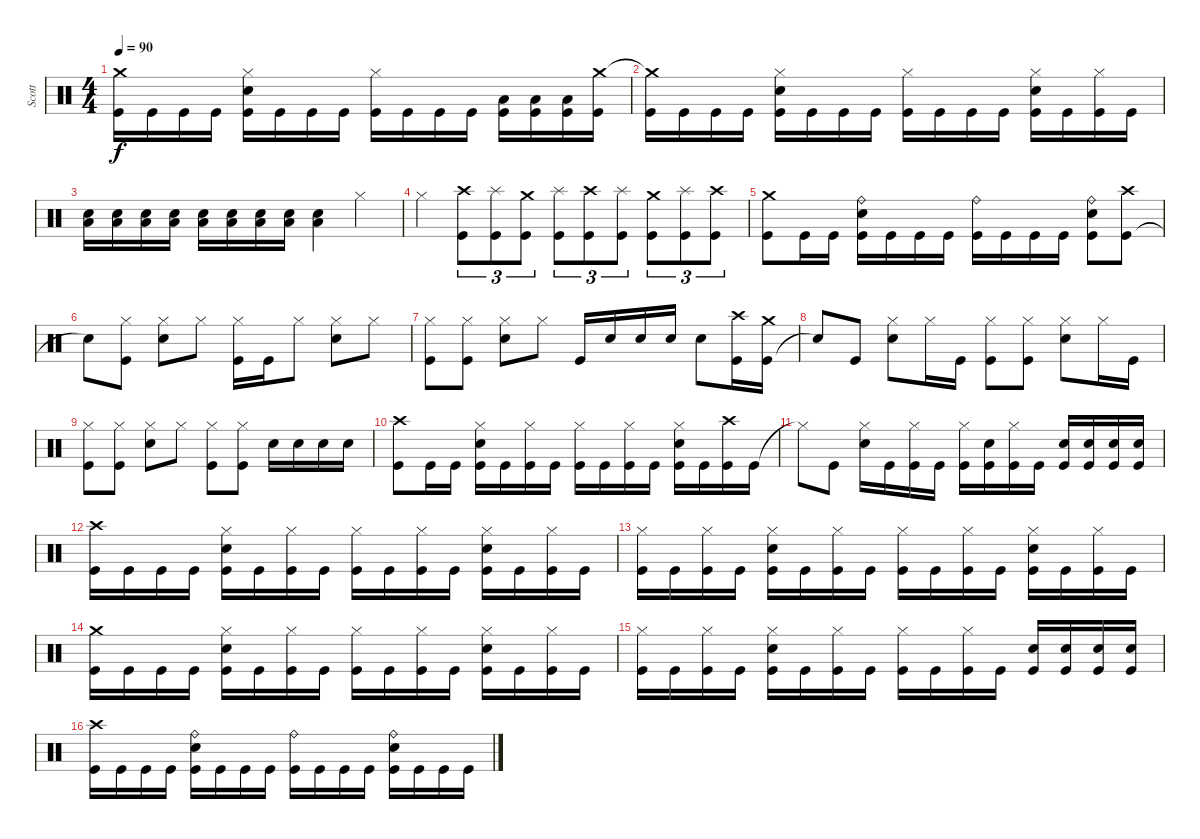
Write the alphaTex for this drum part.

\track ("Scott" "Scott") {instrument percussion}
\staff {score}
\articulation defaults
\ts (4 4)
\tempo 90
\clef neutral
\ks c
("Kick (hit)" "Crash medium (hit)"{t}).16{dy f} "Kick (hit)".16 "Kick (hit)".16 "Kick (hit)".16 ("Kick (hit)" "Snare (hit) 2" "Hi-Hat (closed)").16 "Kick (hit)".16 "Kick (hit)".16 "Kick (hit)".16 ("Kick (hit)" "Hi-Hat (closed)").16 "Kick (hit)".16 "Kick (hit)".16 "Kick (hit)".16 ("Kick (hit)" "Low Floor Tom (hit)").16 ("Kick (hit)" "Low Floor Tom (hit)").16 ("Kick (hit)" "Low Floor Tom (hit)").16 ("Kick (hit)" "Crash medium (hit)").16 |
("Kick (hit)" "Crash medium (hit)"{t}).16 "Kick (hit)".16 "Kick (hit)".16 "Kick (hit)".16 ("Kick (hit)" "Snare (hit) 2" "Hi-Hat (closed)").16 "Kick (hit)".16 "Kick (hit)".16 "Kick (hit)".16 ("Kick (hit)" "Hi-Hat (closed)").16 "Kick (hit)".16 "Kick (hit)".16 "Kick (hit)".16 ("Kick (hit)" "Snare (hit) 2" "Hi-Hat (closed)").16 "Kick (hit)".16 ("Kick (hit)" "Hi-Hat (closed)").16 "Kick (hit)".16 |
("Snare (hit) 2" "Low Floor Tom (hit)").16 ("Snare (hit) 2" "Low Floor Tom (hit)").16 ("Snare (hit) 2" "Low Floor Tom (hit)").16 ("Snare (hit) 2" "Low Floor Tom (hit)").16 ("Snare (hit) 2" "Low Floor Tom (hit)").16 ("Snare (hit) 2" "Low Floor Tom (hit)").16 ("Snare (hit) 2" "Low Floor Tom (hit)").16 ("Snare (hit) 2" "Low Floor Tom (hit)").16 ("Snare (hit) 2" "Low Floor Tom (hit)").4 "Hi-Hat (closed)".4 |
"Hi-Hat (closed)".4 ("Kick (hit)" "Crash high (hit)").8{tu (3 2)} ("Kick (hit)" "Splash (hit)").8{tu (3 2)} ("Kick (hit)" "Crash medium (hit)").8{tu (3 2)} ("Kick (hit)" "Splash (hit)").8{tu (3 2)} ("Kick (hit)" "Crash high (hit)").8{tu (3 2)} ("Kick (hit)" "Splash (hit)").8{tu (3 2)} ("Kick (hit)" "Crash medium (hit)").8{tu (3 2)} ("Kick (hit)" "Splash (hit)").8{tu (3 2)} ("Kick (hit)" "Crash high (hit)").8{tu (3 2)} |
("Kick (hit)" "Crash medium (hit)").8 "Kick (hit)".16 "Kick (hit)".16 ("Kick (hit)" "Snare (hit) 2" "Ride (bell)").16 "Kick (hit)".16 "Kick (hit)".16 "Kick (hit)".16 ("Kick (hit)" "Ride (bell)").16 "Kick (hit)".16 "Kick (hit)".16 "Kick (hit)".16 ("Kick (hit)" "Snare (hit) 2" "Ride (bell)").8 ("Kick (hit)" "Crash high (hit)").8 |
"Snare (hit)"{t}.8 ("Kick (hit)" "Hi-Hat (closed)").8 ("Snare (hit) 2" "Hi-Hat (closed)").8 "Hi-Hat (closed)".8 ("Kick (hit)" "Hi-Hat (closed)").16 "Kick (hit)".16 "Hi-Hat (closed)".8 ("Snare (hit) 2" "Hi-Hat (closed)").8 "Hi-Hat (closed)".8 |
("Kick (hit)" "Hi-Hat (closed)").8 ("Kick (hit)" "Hi-Hat (closed)").8 ("Snare (hit) 2" "Hi-Hat (closed)").8 "Hi-Hat (closed)".8 "Kick (hit)".16 "Snare (hit) 2".16 "Snare (hit) 2".16 "Snare (hit) 2".16 "Snare (hit) 2".8 ("Kick (hit)" "Crash high (hit)").16 ("Kick (hit)" "Crash medium (hit)").16 |
"Snare (hit)"{t}.8 "Kick (hit)".8 ("Snare (hit) 2" "Hi-Hat (closed)").8 "Hi-Hat (closed)".16 "Kick (hit)".16 ("Kick (hit)" "Hi-Hat (closed)").8 ("Kick (hit)" "Hi-Hat (closed)").8 ("Snare (hit) 2" "Hi-Hat (closed)").8 "Hi-Hat (closed)".16 "Kick (hit)".16 |
("Kick (hit)" "Hi-Hat (closed)").8 ("Kick (hit)" "Hi-Hat (closed)").8 ("Snare (hit) 2" "Hi-Hat (closed)").8 "Hi-Hat (closed)".8 ("Kick (hit)" "Hi-Hat (closed)").8 ("Kick (hit)" "Hi-Hat (closed)").8 "Snare (hit) 2".16 "Snare (hit) 2".16 "Snare (hit) 2".16 "Snare (hit) 2".16 |
("Kick (hit)" "Crash high (hit)").8 "Kick (hit)".16 "Kick (hit)".16 ("Kick (hit)" "Snare (hit) 2" "Hi-Hat (closed)").16 "Kick (hit)".16 ("Kick (hit)" "Hi-Hat (closed)").16 "Kick (hit)".16 ("Kick (hit)" "Hi-Hat (closed)").16 "Kick (hit)".16 ("Kick (hit)" "Hi-Hat (closed)").16 "Kick (hit)".16 ("Kick (hit)" "Snare (hit) 2" "Hi-Hat (closed)").16 "Kick (hit)".16 ("Kick (hit)" "Crash high (hit)").16 "Kick (hit)".16 |
"Hi-Hat (closed)"{t}.8 "Kick (hit)".8 ("Snare (hit) 2" "Hi-Hat (closed)").16 "Kick (hit)".16 ("Kick (hit)" "Hi-Hat (closed)").16 "Kick (hit)".16 ("Kick (hit)" "Hi-Hat (closed)").16 ("Kick (hit)" "Snare (hit) 2").16 ("Kick (hit)" "Hi-Hat (closed)").16 "Kick (hit)".16 ("Kick (hit)" "Snare (hit) 2").16 ("Kick (hit)" "Snare (hit) 2").16 ("Kick (hit)" "Snare (hit) 2").16 ("Kick (hit)" "Snare (hit) 2").16 |
("Kick (hit)" "Crash high (hit)").16 "Kick (hit)".16 "Kick (hit)".16 "Kick (hit)".16 ("Kick (hit)" "Snare (hit) 2" "Hi-Hat (closed)").16 "Kick (hit)".16 ("Kick (hit)" "Hi-Hat (closed)").16 "Kick (hit)".16 ("Kick (hit)" "Hi-Hat (closed)").16 "Kick (hit)".16 ("Kick (hit)" "Hi-Hat (closed)").16 "Kick (hit)".16 ("Kick (hit)" "Snare (hit) 2" "Hi-Hat (closed)").16 "Kick (hit)".16 ("Kick (hit)" "Hi-Hat (closed)").16 "Kick (hit)".16 |
("Kick (hit)" "Hi-Hat (closed)").16 "Kick (hit)".16 ("Kick (hit)" "Hi-Hat (closed)").16 "Kick (hit)".16 ("Kick (hit)" "Snare (hit) 2" "Hi-Hat (closed)").16 "Kick (hit)".16 ("Kick (hit)" "Hi-Hat (closed)").16 "Kick (hit)".16 ("Kick (hit)" "Hi-Hat (closed)").16 "Kick (hit)".16 ("Kick (hit)" "Hi-Hat (closed)").16 "Kick (hit)".16 ("Kick (hit)" "Snare (hit) 2" "Hi-Hat (closed)").16 "Kick (hit)".16 ("Kick (hit)" "Hi-Hat (closed)").16 "Kick (hit)".16 |
("Kick (hit)" "Crash medium (hit)").16 "Kick (hit)".16 "Kick (hit)".16 "Kick (hit)".16 ("Kick (hit)" "Snare (hit) 2" "Hi-Hat (closed)").16 "Kick (hit)".16 ("Kick (hit)" "Hi-Hat (closed)").16 "Kick (hit)".16 ("Kick (hit)" "Hi-Hat (closed)").16 "Kick (hit)".16 ("Kick (hit)" "Hi-Hat (closed)").16 "Kick (hit)".16 ("Kick (hit)" "Snare (hit) 2" "Hi-Hat (closed)").16 "Kick (hit)".16 ("Kick (hit)" "Hi-Hat (closed)").16 "Kick (hit)".16 |
("Kick (hit)" "Hi-Hat (closed)").16 "Kick (hit)".16 ("Kick (hit)" "Hi-Hat (closed)").16 "Kick (hit)".16 ("Kick (hit)" "Snare (hit) 2" "Hi-Hat (closed)").16 "Kick (hit)".16 ("Kick (hit)" "Hi-Hat (closed)").16 "Kick (hit)".16 ("Kick (hit)" "Hi-Hat (closed)").16 "Kick (hit)".16 ("Kick (hit)" "Hi-Hat (closed)").16 "Kick (hit)".16 ("Kick (hit)" "Snare (hit) 2").16 ("Kick (hit)" "Snare (hit) 2").16 ("Kick (hit)" "Snare (hit) 2").16 ("Kick (hit)" "Snare (hit) 2").16 |
("Kick (hit)" "Crash high (hit)").16 "Kick (hit)".16 "Kick (hit)".16 "Kick (hit)".16 ("Kick (hit)" "Snare (hit) 2" "Ride (bell)").16 "Kick (hit)".16 "Kick (hit)".16 "Kick (hit)".16 ("Kick (hit)" "Ride (bell)").16 "Kick (hit)".16 "Kick (hit)".16 "Kick (hit)".16 ("Kick (hit)" "Snare (hit) 2" "Ride (bell)").16 "Kick (hit)".16 "Kick (hit)".16 "Kick (hit)".16
